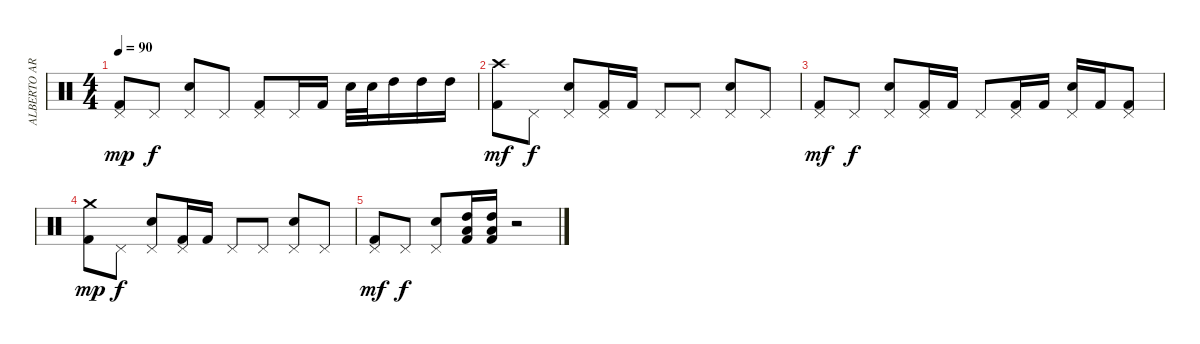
\track ("ALBERTO ARDINES" "ALBERTO AR") {instrument percussion}
\staff {score}
\articulation defaults
\ts (4 4)
\tempo 90
\clef neutral
\ks c
("Pedal Hi-Hat (hit)" "Kick (hit) 2").8{dy mp} "Pedal Hi-Hat (hit)".8{dy f} ("Pedal Hi-Hat (hit)" "Electric Snare (hit)").8 "Pedal Hi-Hat (hit)".8 ("Pedal Hi-Hat (hit)" "Kick (hit) 2").8 "Pedal Hi-Hat (hit)".16 "Kick (hit) 2".16 "Electric Snare (hit)".32 "Electric Snare (hit)".32 "High Tom (hit)".16 "High Tom (hit)".16 "High Tom (hit)".16 |
("Crash high (hit)" "Kick (hit) 2").8{dy mf} "Pedal Hi-Hat (hit)".8{dy f} ("Pedal Hi-Hat (hit)" "Electric Snare (hit)").8 ("Pedal Hi-Hat (hit)" "Kick (hit) 2").16 "Kick (hit) 2".16 "Pedal Hi-Hat (hit)".8 "Pedal Hi-Hat (hit)".8 ("Pedal Hi-Hat (hit)" "Electric Snare (hit)").8 "Pedal Hi-Hat (hit)".8 |
("Pedal Hi-Hat (hit)" "Kick (hit) 2").8{dy mf} "Pedal Hi-Hat (hit)".8{dy f} ("Pedal Hi-Hat (hit)" "Electric Snare (hit)").8 ("Pedal Hi-Hat (hit)" "Kick (hit) 2").16 "Kick (hit) 2".16 "Pedal Hi-Hat (hit)".8 ("Pedal Hi-Hat (hit)" "Kick (hit) 2").16 "Kick (hit) 2".16 ("Pedal Hi-Hat (hit)" "Electric Snare (hit)").16 "Kick (hit) 2".16 ("Pedal Hi-Hat (hit)" "Kick (hit) 2").8 |
("Crash medium (hit)" "Kick (hit) 2").8{dy mp} "Pedal Hi-Hat (hit)".8{dy f} ("Pedal Hi-Hat (hit)" "Electric Snare (hit)").8 ("Pedal Hi-Hat (hit)" "Kick (hit) 2").16 "Kick (hit) 2".16 "Pedal Hi-Hat (hit)".8 "Pedal Hi-Hat (hit)".8 ("Pedal Hi-Hat (hit)" "Electric Snare (hit)").8 "Pedal Hi-Hat (hit)".8 |
("Pedal Hi-Hat (hit)" "Kick (hit) 2").8{dy mf} "Pedal Hi-Hat (hit)".8{dy f} ("Pedal Hi-Hat (hit)" "Electric Snare (hit)").8 ("High Tom (hit)" "Low Floor Tom (hit)" "Kick (hit) 2").16 ("High Tom (hit)" "Low Floor Tom (hit)" "Kick (hit) 2").16 r.2
